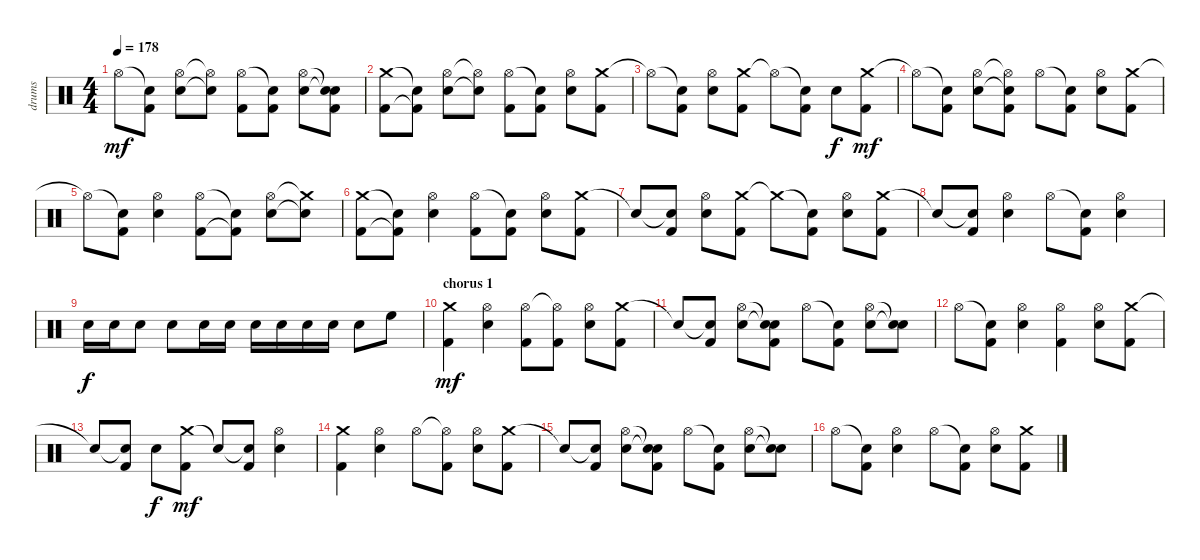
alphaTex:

\track ("drums" "drums") {instrument percussion}
\staff {score}
\articulation defaults
\ts (4 4)
\tempo 178
\clef neutral
\ks aminor "Hi-Hat (open)".8{dy mf}
("Snare (hit)"{t} "Kick (hit) 2").8 ("Hi-Hat (open)" "Snare (hit) 2").8 ("Hi-Hat (open)"{t} "Snare (hit)"{t}).8 ("Hi-Hat (open)" "Kick (hit) 2").8 ("Snare (hit)"{t} "Kick (hit) 2").8 ("Hi-Hat (open)" "Snare (hit) 2").8 ("Snare (hit)"{t} "Snare (hit)"{t} "Kick (hit) 2").8 |
("Crash medium (hit)" "Kick (hit) 2").8 ("Snare (hit)"{t} "Kick (hit) 2"{t}).8 ("Hi-Hat (open)" "Snare (hit) 2").8 ("Hi-Hat (open)"{t} "Snare (hit)"{t}).8 ("Hi-Hat (open)" "Kick (hit) 2").8 ("Snare (hit)"{t} "Kick (hit) 2").8 ("Hi-Hat (open)" "Snare (hit) 2").8 ("Crash medium (hit)" "Kick (hit) 2").8 |
"Hi-Hat (open)"{t}.8 ("Snare (hit)"{t} "Kick (hit) 2").8 ("Hi-Hat (open)" "Snare (hit) 2").8 ("Crash medium (hit)" "Kick (hit) 2").8 "Hi-Hat (open)"{t}.8 ("Snare (hit)"{t} "Kick (hit) 2").8 "Snare (hit) 2".8{dy f} ("Crash medium (hit)" "Kick (hit) 2").8{dy mf} |
"Hi-Hat (open)"{t}.8 ("Snare (hit)"{t} "Kick (hit) 2").8 ("Hi-Hat (open)" "Snare (hit) 2").8 ("Hi-Hat (open)"{t} "Snare (hit)"{t} "Kick (hit) 2").8 "Hi-Hat (open)".8 ("Snare (hit)"{t} "Kick (hit) 2").8 ("Hi-Hat (open)" "Snare (hit) 2").8 ("Crash medium (hit)" "Kick (hit) 2").8 |
"Hi-Hat (open)"{t}.8 ("Snare (hit)"{t} "Kick (hit) 2").8 ("Hi-Hat (open)" "Snare (hit) 2").4 ("Hi-Hat (open)" "Kick (hit) 2").8 ("Snare (hit)"{t} "Kick (hit) 2"{t}).8 ("Hi-Hat (open)" "Snare (hit) 2").8 ("Crash medium (hit)"{t} "Snare (hit)"{t}).8 |
("Crash medium (hit)" "Kick (hit) 2").8 ("Snare (hit)"{t} "Kick (hit) 2"{t}).8 ("Hi-Hat (open)" "Snare (hit) 2").4 ("Hi-Hat (open)" "Kick (hit) 2").8 ("Snare (hit)"{t} "Kick (hit) 2").8 ("Hi-Hat (open)" "Snare (hit) 2").8 ("Crash medium (hit)" "Kick (hit) 2").8 |
"Snare (hit)"{t}.8 ("Snare (hit)"{t} "Kick (hit) 2").8 ("Hi-Hat (open)" "Snare (hit) 2").8 ("Crash medium (hit)" "Kick (hit) 2").8 "Crash medium (hit)"{t}.8 ("Snare (hit)"{t} "Kick (hit) 2").8 ("Hi-Hat (open)" "Snare (hit) 2").8 ("Crash medium (hit)" "Kick (hit) 2").8 |
"Snare (hit)"{t}.8 ("Snare (hit)"{t} "Kick (hit) 2").8 ("Hi-Hat (open)" "Snare (hit) 2").4 "Hi-Hat (open)".8 ("Snare (hit)"{t} "Kick (hit) 2").8 ("Hi-Hat (open)" "Snare (hit) 2").4 |
"Snare (hit) 2".16{dy f} "Snare (hit) 2".16 "Snare (hit) 2".8 "Snare (hit) 2".8 "Snare (hit) 2".16 "Snare (hit) 2".16 "Snare (hit) 2".16 "Snare (hit) 2".16 "Snare (hit) 2".16 "Snare (hit) 2".16 "Snare (hit) 2".8 "High Floor Tom (hit)".8 |
\section ("" "chorus 1")
("Crash medium (hit)" "Kick (hit) 2").4{dy mf} ("Hi-Hat (open)" "Snare (hit) 2").4 ("Hi-Hat (open)" "Kick (hit) 2").8 ("Hi-Hat (open)"{t} "Kick (hit) 2").8 ("Hi-Hat (open)" "Snare (hit) 2").8 ("Crash medium (hit)" "Kick (hit) 2").8 |
"Snare (hit)"{t}.8 ("Snare (hit)"{t} "Kick (hit) 2").8 ("Hi-Hat (open)" "Snare (hit) 2").8 ("Snare (hit)"{t} "Snare (hit)"{t} "Kick (hit) 2").8 "Hi-Hat (open)".8 ("Snare (hit)"{t} "Kick (hit) 2").8 ("Hi-Hat (open)" "Snare (hit) 2").8 ("Snare (hit)"{t} "Snare (hit)"{t}).8 |
"Hi-Hat (open)".8 ("Snare (hit)"{t} "Kick (hit) 2").8 ("Hi-Hat (open)" "Snare (hit) 2").4 ("Hi-Hat (open)" "Kick (hit) 2").4 ("Hi-Hat (open)" "Snare (hit) 2").8 ("Crash medium (hit)" "Kick (hit) 2").8 |
"Snare (hit)"{t}.8 ("Snare (hit)"{t} "Kick (hit) 2").8 "Snare (hit) 2".8{dy f} ("Crash medium (hit)" "Kick (hit) 2").8{dy mf} "Snare (hit)"{t}.8 ("Snare (hit)"{t} "Kick (hit) 2").8 ("Hi-Hat (open)" "Snare (hit) 2").4 |
("Crash medium (hit)" "Kick (hit) 2").4 ("Hi-Hat (open)" "Snare (hit) 2").4 "Hi-Hat (open)".8 ("Hi-Hat (open)"{t} "Kick (hit) 2").8 ("Hi-Hat (open)" "Snare (hit) 2").8 ("Crash medium (hit)" "Kick (hit) 2").8 |
"Snare (hit)"{t}.8 ("Snare (hit)"{t} "Kick (hit) 2").8 ("Hi-Hat (open)" "Snare (hit) 2").8 ("Snare (hit)"{t} "Snare (hit)"{t} "Kick (hit) 2").8 "Hi-Hat (open)".8 ("Snare (hit)"{t} "Kick (hit) 2").8 ("Hi-Hat (open)" "Snare (hit) 2").8 ("Snare (hit)"{t} "Snare (hit)"{t}).8 |
"Hi-Hat (open)".8 ("Snare (hit)"{t} "Kick (hit) 2").8 ("Hi-Hat (open)" "Snare (hit) 2").4 "Hi-Hat (open)".8 ("Snare (hit)"{t} "Kick (hit) 2").8 ("Hi-Hat (open)" "Snare (hit) 2").8 ("Crash medium (hit)" "Kick (hit) 2").8
